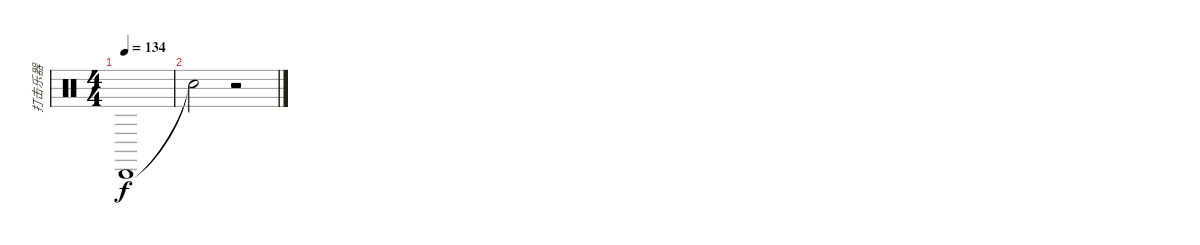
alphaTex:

\track ("打击乐器" "打击乐器") {instrument percussion}
\staff {score}
\articulation defaults
\ts (4 4)
\tempo 134
\clef neutral
\ks c "Cabasa (hit)".1{dy f}
|
"Snare (hit)"{t}.2 r.2
